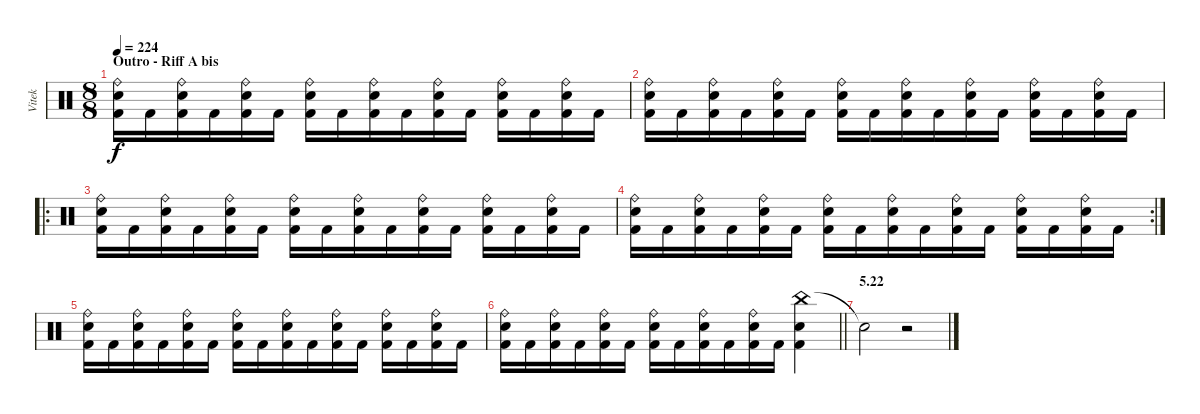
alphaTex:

\track ("Vitek" "Vitek") {instrument percussion}
\staff {score}
\articulation defaults
\ts (8 8)
\section ("" "Outro - Riff A bis")
\tempo 224
\clef neutral
\ks c
("Ride (bell)" "Electric Snare (hit)" "Kick (hit) 2").16{dy f} "Kick (hit) 2".16 ("Ride (bell)" "Electric Snare (hit)" "Kick (hit) 2").16 "Kick (hit) 2".16 ("Ride (bell)" "Electric Snare (hit)" "Kick (hit) 2").16 "Kick (hit) 2".16 ("Ride (bell)" "Electric Snare (hit)" "Kick (hit) 2").16 "Kick (hit) 2".16 ("Ride (bell)" "Electric Snare (hit)" "Kick (hit) 2").16 "Kick (hit) 2".16 ("Ride (bell)" "Electric Snare (hit)" "Kick (hit) 2").16 "Kick (hit) 2".16 ("Ride (bell)" "Electric Snare (hit)" "Kick (hit) 2").16 "Kick (hit) 2".16 ("Ride (bell)" "Electric Snare (hit)" "Kick (hit) 2").16 "Kick (hit) 2".16 |
("Ride (bell)" "Electric Snare (hit)" "Kick (hit) 2").16 "Kick (hit) 2".16 ("Ride (bell)" "Electric Snare (hit)" "Kick (hit) 2").16 "Kick (hit) 2".16 ("Ride (bell)" "Electric Snare (hit)" "Kick (hit) 2").16 "Kick (hit) 2".16 ("Ride (bell)" "Electric Snare (hit)" "Kick (hit) 2").16 "Kick (hit) 2".16 ("Ride (bell)" "Electric Snare (hit)" "Kick (hit) 2").16 "Kick (hit) 2".16 ("Ride (bell)" "Electric Snare (hit)" "Kick (hit) 2").16 "Kick (hit) 2".16 ("Ride (bell)" "Electric Snare (hit)" "Kick (hit) 2").16 "Kick (hit) 2".16 ("Ride (bell)" "Electric Snare (hit)" "Kick (hit) 2").16 "Kick (hit) 2".16 |
\ro
("Ride (bell)" "Electric Snare (hit)" "Kick (hit) 2").16 "Kick (hit) 2".16 ("Ride (bell)" "Electric Snare (hit)" "Kick (hit) 2").16 "Kick (hit) 2".16 ("Ride (bell)" "Electric Snare (hit)" "Kick (hit) 2").16 "Kick (hit) 2".16 ("Ride (bell)" "Electric Snare (hit)" "Kick (hit) 2").16 "Kick (hit) 2".16 ("Ride (bell)" "Electric Snare (hit)" "Kick (hit) 2").16 "Kick (hit) 2".16 ("Ride (bell)" "Electric Snare (hit)" "Kick (hit) 2").16 "Kick (hit) 2".16 ("Ride (bell)" "Electric Snare (hit)" "Kick (hit) 2").16 "Kick (hit) 2".16 ("Ride (bell)" "Electric Snare (hit)" "Kick (hit) 2").16 "Kick (hit) 2".16 |
\rc 2
("Ride (bell)" "Electric Snare (hit)" "Kick (hit) 2").16 "Kick (hit) 2".16 ("Ride (bell)" "Electric Snare (hit)" "Kick (hit) 2").16 "Kick (hit) 2".16 ("Ride (bell)" "Electric Snare (hit)" "Kick (hit) 2").16 "Kick (hit) 2".16 ("Ride (bell)" "Electric Snare (hit)" "Kick (hit) 2").16 "Kick (hit) 2".16 ("Ride (bell)" "Electric Snare (hit)" "Kick (hit) 2").16 "Kick (hit) 2".16 ("Ride (bell)" "Electric Snare (hit)" "Kick (hit) 2").16 "Kick (hit) 2".16 ("Ride (bell)" "Electric Snare (hit)" "Kick (hit) 2").16 "Kick (hit) 2".16 ("Ride (bell)" "Electric Snare (hit)" "Kick (hit) 2").16 "Kick (hit) 2".16 |
("Ride (bell)" "Electric Snare (hit)" "Kick (hit) 2").16 "Kick (hit) 2".16 ("Ride (bell)" "Electric Snare (hit)" "Kick (hit) 2").16 "Kick (hit) 2".16 ("Ride (bell)" "Electric Snare (hit)" "Kick (hit) 2").16 "Kick (hit) 2".16 ("Ride (bell)" "Electric Snare (hit)" "Kick (hit) 2").16 "Kick (hit) 2".16 ("Ride (bell)" "Electric Snare (hit)" "Kick (hit) 2").16 "Kick (hit) 2".16 ("Ride (bell)" "Electric Snare (hit)" "Kick (hit) 2").16 "Kick (hit) 2".16 ("Ride (bell)" "Electric Snare (hit)" "Kick (hit) 2").16 "Kick (hit) 2".16 ("Ride (bell)" "Electric Snare (hit)" "Kick (hit) 2").16 "Kick (hit) 2".16 |
\barLineRight lightlight
("Ride (bell)" "Electric Snare (hit)" "Kick (hit) 2").16 "Kick (hit) 2".16 ("Ride (bell)" "Electric Snare (hit)" "Kick (hit) 2").16 "Kick (hit) 2".16 ("Ride (bell)" "Electric Snare (hit)" "Kick (hit) 2").16 "Kick (hit) 2".16 ("Ride (bell)" "Electric Snare (hit)" "Kick (hit) 2").16 "Kick (hit) 2".16 ("Ride (bell)" "Electric Snare (hit)" "Kick (hit) 2").16 "Kick (hit) 2".16 ("Ride (bell)" "Electric Snare (hit)" "Kick (hit) 2").16 "Kick (hit) 2".16 ("China (hit)" "Electric Snare (hit)" "Kick (hit) 2").4 |
\section ("" "5.22")
"Snare (hit)"{t}.2 r.2
